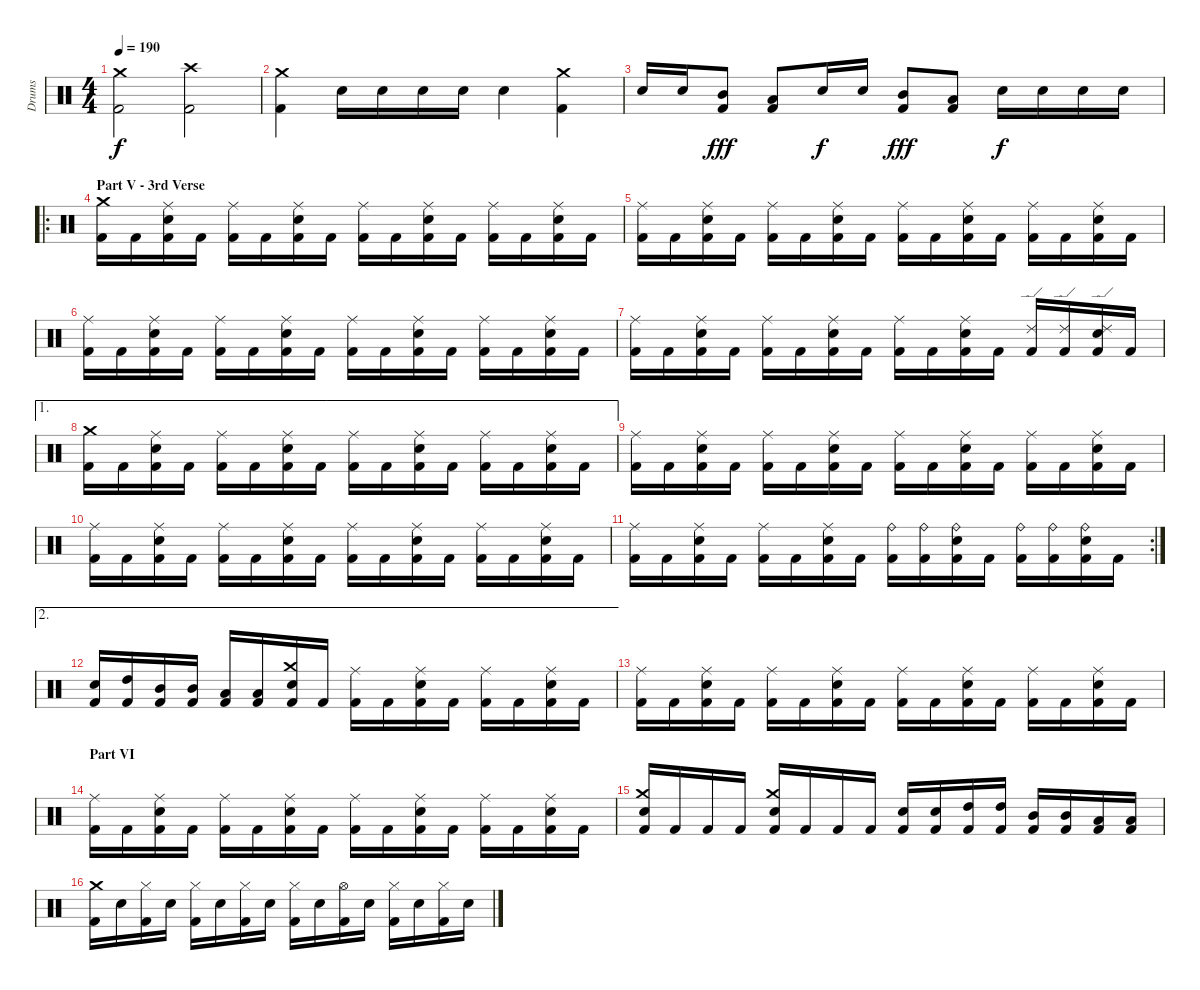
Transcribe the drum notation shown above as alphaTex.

\track ("Drums" "Drums") {instrument percussion}
\staff {score}
\articulation defaults
\ts (4 4)
\tempo 190
\clef neutral
\ks c
("Kick (hit) 2" "Crash medium (hit)").2{dy f} ("Kick (hit) 2" "Crash high (hit)").2 |
("Kick (hit) 2" "Crash medium (hit)").4 "Electric Snare (hit)".16 "Electric Snare (hit)".16 "Electric Snare (hit)".16 "Electric Snare (hit)".16 "Electric Snare (hit)".4 ("Kick (hit) 2" "Crash medium (hit)").4 |
"Electric Snare (hit)".16 "Electric Snare (hit)".16 ("Kick (hit) 2" "Mid Tom (hit)").8{dy fff} ("Kick (hit) 2" "Low Tom (hit)").8 "Electric Snare (hit)".16{dy f} "Electric Snare (hit)".16 ("Kick (hit) 2" "Mid Tom (hit)").8{dy fff} ("Kick (hit) 2" "Low Tom (hit)").8 "Electric Snare (hit)".16{dy f} "Electric Snare (hit)".16 "Electric Snare (hit)".16 "Electric Snare (hit)".16 |
\ro
\section ("" "Part V - 3rd Verse")
("Kick (hit) 2" "Crash medium (hit)").16 "Kick (hit) 2".16 ("Kick (hit) 2" "Electric Snare (hit)" "Ride (middle)").16 "Kick (hit) 2".16 ("Kick (hit) 2" "Ride (middle)").16 "Kick (hit) 2".16 ("Kick (hit) 2" "Electric Snare (hit)" "Ride (middle)").16 "Kick (hit) 2".16 ("Kick (hit) 2" "Ride (middle)").16 "Kick (hit) 2".16 ("Kick (hit) 2" "Electric Snare (hit)" "Ride (middle)").16 "Kick (hit) 2".16 ("Kick (hit) 2" "Ride (middle)").16 "Kick (hit) 2".16 ("Kick (hit) 2" "Electric Snare (hit)" "Ride (middle)").16 "Kick (hit) 2".16 |
("Kick (hit) 2" "Ride (middle)").16 "Kick (hit) 2".16 ("Kick (hit) 2" "Electric Snare (hit)" "Ride (middle)").16 "Kick (hit) 2".16 ("Kick (hit) 2" "Ride (middle)").16 "Kick (hit) 2".16 ("Kick (hit) 2" "Electric Snare (hit)" "Ride (middle)").16 "Kick (hit) 2".16 ("Kick (hit) 2" "Ride (middle)").16 "Kick (hit) 2".16 ("Kick (hit) 2" "Electric Snare (hit)" "Ride (middle)").16 "Kick (hit) 2".16 ("Kick (hit) 2" "Ride (middle)").16 "Kick (hit) 2".16 ("Kick (hit) 2" "Electric Snare (hit)" "Ride (middle)").16 "Kick (hit) 2".16 |
("Kick (hit) 2" "Ride (middle)").16 "Kick (hit) 2".16 ("Kick (hit) 2" "Electric Snare (hit)" "Ride (middle)").16 "Kick (hit) 2".16 ("Kick (hit) 2" "Ride (middle)").16 "Kick (hit) 2".16 ("Kick (hit) 2" "Electric Snare (hit)" "Ride (middle)").16 "Kick (hit) 2".16 ("Kick (hit) 2" "Ride (middle)").16 "Kick (hit) 2".16 ("Kick (hit) 2" "Electric Snare (hit)" "Ride (middle)").16 "Kick (hit) 2".16 ("Kick (hit) 2" "Ride (middle)").16 "Kick (hit) 2".16 ("Kick (hit) 2" "Electric Snare (hit)" "Ride (middle)").16 "Kick (hit) 2".16 |
("Kick (hit) 2" "Ride (middle)").16 "Kick (hit) 2".16 ("Kick (hit) 2" "Electric Snare (hit)" "Ride (middle)").16 "Kick (hit) 2".16 ("Kick (hit) 2" "Ride (middle)").16 "Kick (hit) 2".16 ("Kick (hit) 2" "Electric Snare (hit)" "Ride (middle)").16 "Kick (hit) 2".16 ("Kick (hit) 2" "Ride (middle)").16 "Kick (hit) 2".16 ("Kick (hit) 2" "Electric Snare (hit)" "Ride (middle)").16 "Kick (hit) 2".16 ("Kick (hit) 2" "Ride (edge) 2").16 ("Kick (hit) 2" "Ride (edge) 2").16 ("Kick (hit) 2" "Electric Snare (hit)" "Ride (edge) 2").16 "Kick (hit) 2".16 |
\ae 1
("Kick (hit) 2" "Crash medium (hit)").16 "Kick (hit) 2".16 ("Kick (hit) 2" "Electric Snare (hit)" "Ride (middle)").16 "Kick (hit) 2".16 ("Kick (hit) 2" "Ride (middle)").16 "Kick (hit) 2".16 ("Kick (hit) 2" "Electric Snare (hit)" "Ride (middle)").16 "Kick (hit) 2".16 ("Kick (hit) 2" "Ride (middle)").16 "Kick (hit) 2".16 ("Kick (hit) 2" "Electric Snare (hit)" "Ride (middle)").16 "Kick (hit) 2".16 ("Kick (hit) 2" "Ride (middle)").16 "Kick (hit) 2".16 ("Kick (hit) 2" "Electric Snare (hit)" "Ride (middle)").16 "Kick (hit) 2".16 |
("Kick (hit) 2" "Ride (middle)").16 "Kick (hit) 2".16 ("Kick (hit) 2" "Electric Snare (hit)" "Ride (middle)").16 "Kick (hit) 2".16 ("Kick (hit) 2" "Ride (middle)").16 "Kick (hit) 2".16 ("Kick (hit) 2" "Electric Snare (hit)" "Ride (middle)").16 "Kick (hit) 2".16 ("Kick (hit) 2" "Ride (middle)").16 "Kick (hit) 2".16 ("Kick (hit) 2" "Electric Snare (hit)" "Ride (middle)").16 "Kick (hit) 2".16 ("Kick (hit) 2" "Ride (middle)").16 "Kick (hit) 2".16 ("Kick (hit) 2" "Electric Snare (hit)" "Ride (middle)").16 "Kick (hit) 2".16 |
("Kick (hit) 2" "Ride (middle)").16 "Kick (hit) 2".16 ("Kick (hit) 2" "Electric Snare (hit)" "Ride (middle)").16 "Kick (hit) 2".16 ("Kick (hit) 2" "Ride (middle)").16 "Kick (hit) 2".16 ("Kick (hit) 2" "Electric Snare (hit)" "Ride (middle)").16 "Kick (hit) 2".16 ("Kick (hit) 2" "Ride (middle)").16 "Kick (hit) 2".16 ("Kick (hit) 2" "Electric Snare (hit)" "Ride (middle)").16 "Kick (hit) 2".16 ("Kick (hit) 2" "Ride (middle)").16 "Kick (hit) 2".16 ("Kick (hit) 2" "Electric Snare (hit)" "Ride (middle)").16 "Kick (hit) 2".16 |
\rc 2
("Kick (hit) 2" "Ride (middle)").16 "Kick (hit) 2".16 ("Kick (hit) 2" "Electric Snare (hit)" "Ride (middle)").16 "Kick (hit) 2".16 ("Kick (hit) 2" "Ride (middle)").16 "Kick (hit) 2".16 ("Kick (hit) 2" "Electric Snare (hit)" "Ride (middle)").16 "Kick (hit) 2".16 ("Kick (hit) 2" "Ride (bell)").16 ("Kick (hit) 2" "Ride (bell)").16 ("Kick (hit) 2" "Electric Snare (hit)" "Ride (bell)").16 "Kick (hit) 2".16 ("Kick (hit) 2" "Ride (bell)").16 ("Kick (hit) 2" "Ride (bell)").16 ("Kick (hit) 2" "Electric Snare (hit)" "Ride (bell)").16 "Kick (hit) 2".16 |
\ae 2
("Kick (hit) 2" "Electric Snare (hit)").16 ("Kick (hit) 2" "High Tom (hit)").16 ("Kick (hit) 2" "Mid Tom (hit)").16 ("Kick (hit) 2" "Mid Tom (hit)").16 ("Kick (hit) 2" "Low Tom (hit)").16 ("Kick (hit) 2" "Low Tom (hit)").16 ("Kick (hit) 2" "Electric Snare (hit)" "Crash medium (hit)").16 "Kick (hit) 2".16 ("Kick (hit) 2" "Ride (middle)").16 "Kick (hit) 2".16 ("Kick (hit) 2" "Electric Snare (hit)" "Ride (middle)").16 "Kick (hit) 2".16 ("Kick (hit) 2" "Ride (middle)").16 "Kick (hit) 2".16 ("Kick (hit) 2" "Electric Snare (hit)" "Ride (middle)").16 "Kick (hit) 2".16 |
("Kick (hit) 2" "Ride (middle)").16 "Kick (hit) 2".16 ("Kick (hit) 2" "Electric Snare (hit)" "Ride (middle)").16 "Kick (hit) 2".16 ("Kick (hit) 2" "Ride (middle)").16 "Kick (hit) 2".16 ("Kick (hit) 2" "Electric Snare (hit)" "Ride (middle)").16 "Kick (hit) 2".16 ("Kick (hit) 2" "Ride (middle)").16 "Kick (hit) 2".16 ("Kick (hit) 2" "Electric Snare (hit)" "Ride (middle)").16 "Kick (hit) 2".16 ("Kick (hit) 2" "Ride (middle)").16 "Kick (hit) 2".16 ("Kick (hit) 2" "Electric Snare (hit)" "Ride (middle)").16 "Kick (hit) 2".16 |
\section ("" "Part VI")
("Kick (hit) 2" "Ride (middle)").16 "Kick (hit) 2".16 ("Kick (hit) 2" "Electric Snare (hit)" "Ride (middle)").16 "Kick (hit) 2".16 ("Kick (hit) 2" "Ride (middle)").16 "Kick (hit) 2".16 ("Kick (hit) 2" "Electric Snare (hit)" "Ride (middle)").16 "Kick (hit) 2".16 ("Kick (hit) 2" "Ride (middle)").16 "Kick (hit) 2".16 ("Kick (hit) 2" "Electric Snare (hit)" "Ride (middle)").16 "Kick (hit) 2".16 ("Kick (hit) 2" "Ride (middle)").16 "Kick (hit) 2".16 ("Kick (hit) 2" "Electric Snare (hit)" "Ride (middle)").16 "Kick (hit) 2".16 |
("Kick (hit) 2" "Electric Snare (hit)" "Crash medium (hit)").16 "Kick (hit) 2".16 "Kick (hit) 2".16 "Kick (hit) 2".16 ("Kick (hit) 2" "Electric Snare (hit)" "Crash medium (hit)").16 "Kick (hit) 2".16 "Kick (hit) 2".16 "Kick (hit) 2".16 ("Kick (hit) 2" "Electric Snare (hit)").16 ("Kick (hit) 2" "Electric Snare (hit)").16 ("Kick (hit) 2" "High Tom (hit)").16 ("Kick (hit) 2" "High Tom (hit)").16 ("Kick (hit) 2" "Mid Tom (hit)").16 ("Kick (hit) 2" "Mid Tom (hit)").16 ("Kick (hit) 2" "Low Tom (hit)").16 ("Kick (hit) 2" "Low Tom (hit)").16 |
("Kick (hit) 2" "Crash medium (hit)").16 "Electric Snare (hit)".16 ("Kick (hit) 2" "Hi-Hat (closed)").16 "Electric Snare (hit)".16 ("Kick (hit) 2" "Hi-Hat (closed)").16 "Electric Snare (hit)".16 ("Kick (hit) 2" "Hi-Hat (closed)").16 "Electric Snare (hit)".16 ("Kick (hit) 2" "Hi-Hat (closed)").16 "Electric Snare (hit)".16 ("Kick (hit) 2" "Hi-Hat (open)").16 "Electric Snare (hit)".16 ("Kick (hit) 2" "Hi-Hat (closed)").16 "Electric Snare (hit)".16 ("Kick (hit) 2" "Hi-Hat (closed)").16 "Electric Snare (hit)".16
